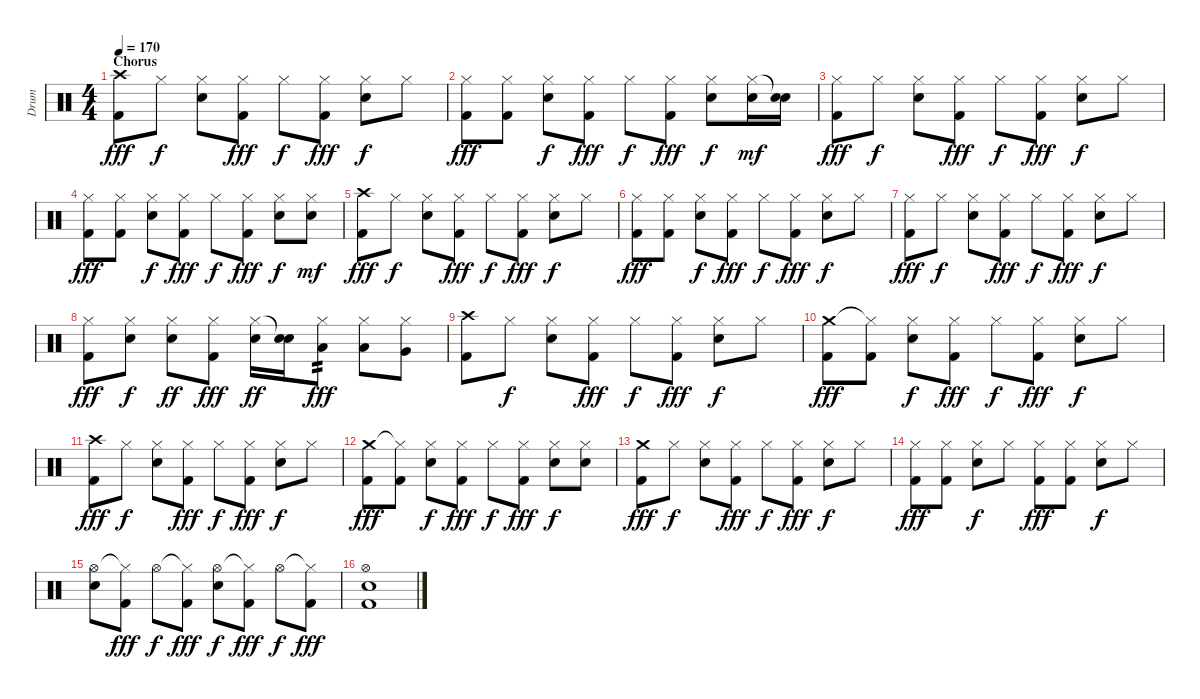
\track ("Drum" "Drum") {instrument percussion}
\staff {score}
\articulation defaults
\ts (4 4)
\section ("" "Chorus")
\tempo 170
\clef neutral
\ks c
("Crash high (hit)" "Kick (hit) 2").8{dy fff} "Hi-Hat (closed)".8{dy f} ("Hi-Hat (closed)" "Snare (hit) 2").8 ("Hi-Hat (closed)" "Kick (hit) 2").8{dy fff} "Hi-Hat (closed)".8{dy f} ("Hi-Hat (closed)" "Kick (hit) 2").8{dy fff} ("Hi-Hat (closed)" "Snare (hit) 2").8{dy f} "Hi-Hat (closed)".8 |
("Hi-Hat (closed)" "Kick (hit) 2").8{dy fff} ("Hi-Hat (closed)" "Kick (hit) 2").8 ("Hi-Hat (closed)" "Snare (hit) 2").8{dy f} ("Hi-Hat (closed)" "Kick (hit) 2").8{dy fff} "Hi-Hat (closed)".8{dy f} ("Hi-Hat (closed)" "Kick (hit) 2").8{dy fff} ("Hi-Hat (closed)" "Snare (hit) 2").8{dy f} ("Hi-Hat (closed)" "Snare (hit) 2").16{dy mf} ("Snare (hit)"{t} "Snare (hit) 2").16 |
("Hi-Hat (closed)" "Kick (hit) 2").8{dy fff} "Hi-Hat (closed)".8{dy f} ("Hi-Hat (closed)" "Snare (hit) 2").8 ("Hi-Hat (closed)" "Kick (hit) 2").8{dy fff} "Hi-Hat (closed)".8{dy f} ("Hi-Hat (closed)" "Kick (hit) 2").8{dy fff} ("Hi-Hat (closed)" "Snare (hit) 2").8{dy f} "Hi-Hat (closed)".8 |
("Hi-Hat (closed)" "Kick (hit) 2").8{dy fff} ("Hi-Hat (closed)" "Kick (hit) 2").8 ("Hi-Hat (closed)" "Snare (hit) 2").8{dy f} ("Hi-Hat (closed)" "Kick (hit) 2").8{dy fff} "Hi-Hat (closed)".8{dy f} ("Hi-Hat (closed)" "Kick (hit) 2").8{dy fff} ("Hi-Hat (closed)" "Snare (hit) 2").8{dy f} ("Hi-Hat (closed)" "Snare (hit) 2").8{dy mf} |
("Crash high (hit)" "Kick (hit) 2").8{dy fff} "Hi-Hat (closed)".8{dy f} ("Hi-Hat (closed)" "Snare (hit) 2").8 ("Hi-Hat (closed)" "Kick (hit) 2").8{dy fff} "Hi-Hat (closed)".8{dy f} ("Hi-Hat (closed)" "Kick (hit) 2").8{dy fff} ("Hi-Hat (closed)" "Snare (hit) 2").8{dy f} "Hi-Hat (closed)".8 |
("Hi-Hat (closed)" "Kick (hit) 2").8{dy fff} ("Hi-Hat (closed)" "Kick (hit) 2").8 ("Hi-Hat (closed)" "Snare (hit) 2").8{dy f} ("Hi-Hat (closed)" "Kick (hit) 2").8{dy fff} "Hi-Hat (closed)".8{dy f} ("Hi-Hat (closed)" "Kick (hit) 2").8{dy fff} ("Hi-Hat (closed)" "Snare (hit) 2").8{dy f} "Hi-Hat (closed)".8 |
("Hi-Hat (closed)" "Kick (hit) 2").8{dy fff} "Hi-Hat (closed)".8{dy f} ("Hi-Hat (closed)" "Snare (hit) 2").8 ("Hi-Hat (closed)" "Kick (hit) 2").8{dy fff} "Hi-Hat (closed)".8{dy f} ("Hi-Hat (closed)" "Kick (hit) 2").8{dy fff} ("Hi-Hat (closed)" "Snare (hit) 2").8{dy f} "Hi-Hat (closed)".8 |
("Hi-Hat (closed)" "Kick (hit) 2").8{dy fff} ("Hi-Hat (closed)" "Snare (hit) 2").8{dy f} ("Hi-Hat (closed)" "Snare (hit) 2").8{dy ff} ("Hi-Hat (closed)" "Kick (hit) 2").8{dy fff} ("Hi-Hat (closed)" "Snare (hit) 2").16{dy ff} ("Snare (hit)"{t} "Snare (hit) 2").16 ("Hi-Hat (closed)" "Low Tom (hit)").8{tp 2 dy fff} ("Hi-Hat (closed)" "Low Tom (hit)").8 ("Hi-Hat (closed)" "Very Low Tom (hit)").8 |
("Crash high (hit)" "Kick (hit) 2").8 "Hi-Hat (closed)".8{dy f} ("Hi-Hat (closed)" "Snare (hit) 2").8 ("Hi-Hat (closed)" "Kick (hit) 2").8{dy fff} "Hi-Hat (closed)".8{dy f} ("Hi-Hat (closed)" "Kick (hit) 2").8{dy fff} ("Hi-Hat (closed)" "Snare (hit) 2").8{dy f} "Hi-Hat (closed)".8 |
("Crash medium (hit)" "Kick (hit) 2").8{dy fff} ("Hi-Hat (closed)"{t} "Kick (hit) 2").8 ("Hi-Hat (closed)" "Snare (hit) 2").8{dy f} ("Hi-Hat (closed)" "Kick (hit) 2").8{dy fff} "Hi-Hat (closed)".8{dy f} ("Hi-Hat (closed)" "Kick (hit) 2").8{dy fff} ("Hi-Hat (closed)" "Snare (hit) 2").8{dy f} "Hi-Hat (closed)".8 |
("Crash high (hit)" "Kick (hit) 2").8{dy fff} "Hi-Hat (closed)".8{dy f} ("Hi-Hat (closed)" "Snare (hit) 2").8 ("Hi-Hat (closed)" "Kick (hit) 2").8{dy fff} "Hi-Hat (closed)".8{dy f} ("Hi-Hat (closed)" "Kick (hit) 2").8{dy fff} ("Hi-Hat (closed)" "Snare (hit) 2").8{dy f} "Hi-Hat (closed)".8 |
("Crash medium (hit)" "Kick (hit) 2").8{dy fff} ("Hi-Hat (closed)"{t} "Kick (hit) 2").8 ("Hi-Hat (closed)" "Snare (hit) 2").8{dy f} ("Hi-Hat (closed)" "Kick (hit) 2").8{dy fff} "Hi-Hat (closed)".8{dy f} ("Hi-Hat (closed)" "Kick (hit) 2").8{dy fff} ("Hi-Hat (closed)" "Snare (hit) 2").8{dy f} ("Hi-Hat (closed)" "Snare (hit) 2").8 |
("Crash medium (hit)" "Kick (hit) 2").8{dy fff} "Hi-Hat (closed)".8{dy f} ("Hi-Hat (closed)" "Snare (hit) 2").8 ("Hi-Hat (closed)" "Kick (hit) 2").8{dy fff} "Hi-Hat (closed)".8{dy f} ("Hi-Hat (closed)" "Kick (hit) 2").8{dy fff} ("Hi-Hat (closed)" "Snare (hit) 2").8{dy f} "Hi-Hat (closed)".8 |
("Hi-Hat (closed)" "Kick (hit) 2").8{dy fff} ("Hi-Hat (closed)" "Kick (hit) 2").8 ("Hi-Hat (closed)" "Snare (hit) 2").8{dy f} "Hi-Hat (closed)".8 ("Hi-Hat (closed)" "Kick (hit) 2").8{dy fff} ("Hi-Hat (closed)" "Kick (hit) 2").8 ("Hi-Hat (closed)" "Snare (hit) 2").8{dy f} "Hi-Hat (closed)".8 |
("Hi-Hat (open)" "Snare (hit) 2").8 ("Hi-Hat (closed)"{t} "Kick (hit) 2").8{dy fff} "Hi-Hat (open)".8{dy f} ("Hi-Hat (closed)"{t} "Kick (hit) 2").8{dy fff} ("Hi-Hat (open)" "Snare (hit) 2").8{dy f} ("Hi-Hat (closed)"{t} "Kick (hit) 2").8{dy fff} "Hi-Hat (open)".8{dy f} ("Hi-Hat (closed)"{t} "Kick (hit) 2").8{dy fff} |
("Hi-Hat (open)" "Snare (hit) 2" "Kick (hit) 2").1
